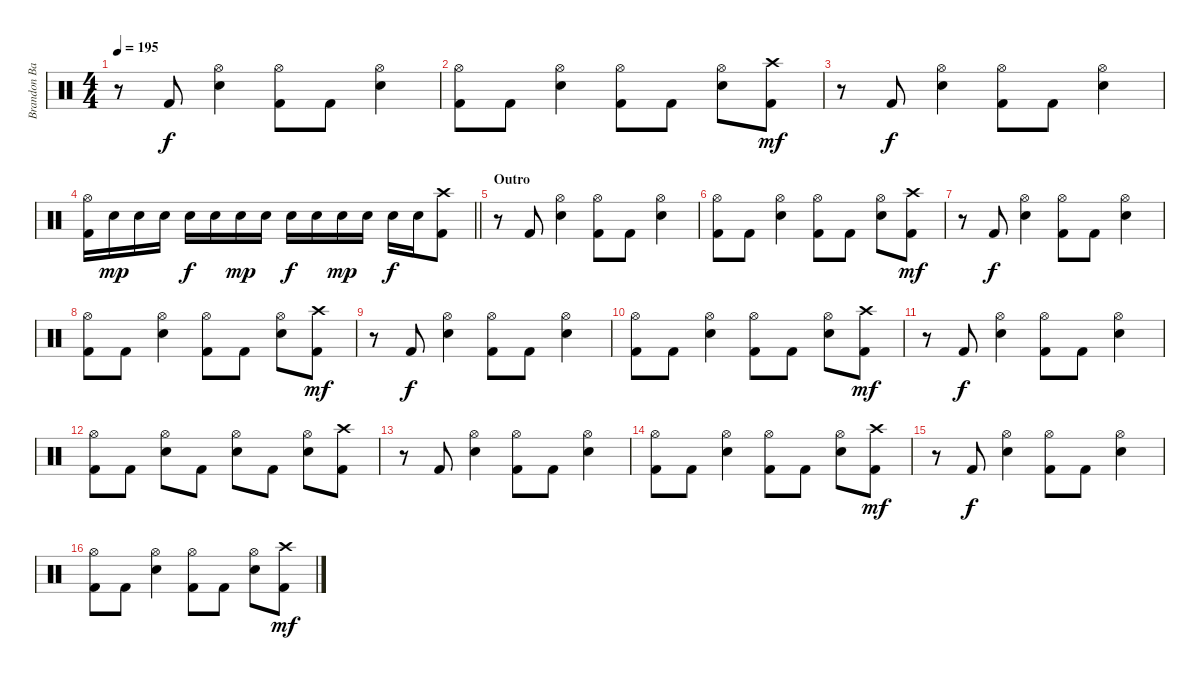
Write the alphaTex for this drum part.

\track ("Brandon Barnes - Drums" "Brandon Ba") {instrument percussion}
\staff {score}
\articulation defaults
\ts (4 4)
\tempo 195
\clef neutral
\ks c
r.8{dy mf} "Kick (hit) 2".8{dy f} ("Snare (hit) 2" "Hi-Hat (open)").4 ("Kick (hit) 2" "Hi-Hat (open)").8 "Kick (hit) 2".8 ("Snare (hit) 2" "Hi-Hat (open)").4 |
("Kick (hit) 2" "Hi-Hat (open)").8 "Kick (hit) 2".8 ("Snare (hit) 2" "Hi-Hat (open)").4 ("Kick (hit) 2" "Hi-Hat (open)").8 "Kick (hit) 2".8 ("Snare (hit) 2" "Hi-Hat (open)").8 ("Kick (hit) 2" "Crash high (hit)").8{dy mf} |
r.8 "Kick (hit) 2".8{dy f} ("Snare (hit) 2" "Hi-Hat (open)").4 ("Kick (hit) 2" "Hi-Hat (open)").8 "Kick (hit) 2".8 ("Snare (hit) 2" "Hi-Hat (open)").4 |
\barLineRight lightlight
("Kick (hit) 2" "Hi-Hat (open)").16 "Snare (hit) 2".16{dy mp} "Snare (hit) 2".16 "Snare (hit) 2".16 "Snare (hit) 2".16{dy f} "Snare (hit) 2".16 "Snare (hit) 2".16{dy mp} "Snare (hit) 2".16 "Snare (hit) 2".16{dy f} "Snare (hit) 2".16 "Snare (hit) 2".16{dy mp} "Snare (hit) 2".16 "Snare (hit) 2".16{dy f} "Snare (hit) 2".16 ("Crash high (hit)" "Kick (hit) 2").8 |
\section ("" "Outro")
r.8 "Kick (hit) 2".8 ("Snare (hit) 2" "Hi-Hat (open)").4 ("Kick (hit) 2" "Hi-Hat (open)").8 "Kick (hit) 2".8 ("Snare (hit) 2" "Hi-Hat (open)").4 |
("Kick (hit) 2" "Hi-Hat (open)").8 "Kick (hit) 2".8 ("Snare (hit) 2" "Hi-Hat (open)").4 ("Kick (hit) 2" "Hi-Hat (open)").8 "Kick (hit) 2".8 ("Snare (hit) 2" "Hi-Hat (open)").8 ("Kick (hit) 2" "Crash high (hit)").8{dy mf} |
r.8 "Kick (hit) 2".8{dy f} ("Snare (hit) 2" "Hi-Hat (open)").4 ("Kick (hit) 2" "Hi-Hat (open)").8 "Kick (hit) 2".8 ("Snare (hit) 2" "Hi-Hat (open)").4 |
("Kick (hit) 2" "Hi-Hat (open)").8 "Kick (hit) 2".8 ("Snare (hit) 2" "Hi-Hat (open)").4 ("Kick (hit) 2" "Hi-Hat (open)").8 "Kick (hit) 2".8 ("Snare (hit) 2" "Hi-Hat (open)").8 ("Kick (hit) 2" "Crash high (hit)").8{dy mf} |
r.8 "Kick (hit) 2".8{dy f} ("Snare (hit) 2" "Hi-Hat (open)").4 ("Kick (hit) 2" "Hi-Hat (open)").8 "Kick (hit) 2".8 ("Snare (hit) 2" "Hi-Hat (open)").4 |
("Kick (hit) 2" "Hi-Hat (open)").8 "Kick (hit) 2".8 ("Snare (hit) 2" "Hi-Hat (open)").4 ("Kick (hit) 2" "Hi-Hat (open)").8 "Kick (hit) 2".8 ("Snare (hit) 2" "Hi-Hat (open)").8 ("Kick (hit) 2" "Crash high (hit)").8{dy mf} |
r.8 "Kick (hit) 2".8{dy f} ("Snare (hit) 2" "Hi-Hat (open)").4 ("Kick (hit) 2" "Hi-Hat (open)").8 "Kick (hit) 2".8 ("Snare (hit) 2" "Hi-Hat (open)").4 |
("Kick (hit) 2" "Hi-Hat (open)").8 "Kick (hit) 2".8 ("Snare (hit) 2" "Hi-Hat (open)").8 "Kick (hit) 2".8 ("Snare (hit) 2" "Hi-Hat (open)").8 "Kick (hit) 2".8 ("Snare (hit) 2" "Hi-Hat (open)").8 ("Kick (hit) 2" "Crash high (hit)").8 |
r.8 "Kick (hit) 2".8 ("Snare (hit) 2" "Hi-Hat (open)").4 ("Kick (hit) 2" "Hi-Hat (open)").8 "Kick (hit) 2".8 ("Snare (hit) 2" "Hi-Hat (open)").4 |
("Kick (hit) 2" "Hi-Hat (open)").8 "Kick (hit) 2".8 ("Snare (hit) 2" "Hi-Hat (open)").4 ("Kick (hit) 2" "Hi-Hat (open)").8 "Kick (hit) 2".8 ("Snare (hit) 2" "Hi-Hat (open)").8 ("Kick (hit) 2" "Crash high (hit)").8{dy mf} |
r.8 "Kick (hit) 2".8{dy f} ("Snare (hit) 2" "Hi-Hat (open)").4 ("Kick (hit) 2" "Hi-Hat (open)").8 "Kick (hit) 2".8 ("Snare (hit) 2" "Hi-Hat (open)").4 |
("Kick (hit) 2" "Hi-Hat (open)").8 "Kick (hit) 2".8 ("Snare (hit) 2" "Hi-Hat (open)").4 ("Kick (hit) 2" "Hi-Hat (open)").8 "Kick (hit) 2".8 ("Snare (hit) 2" "Hi-Hat (open)").8 ("Kick (hit) 2" "Crash high (hit)").8{dy mf}
